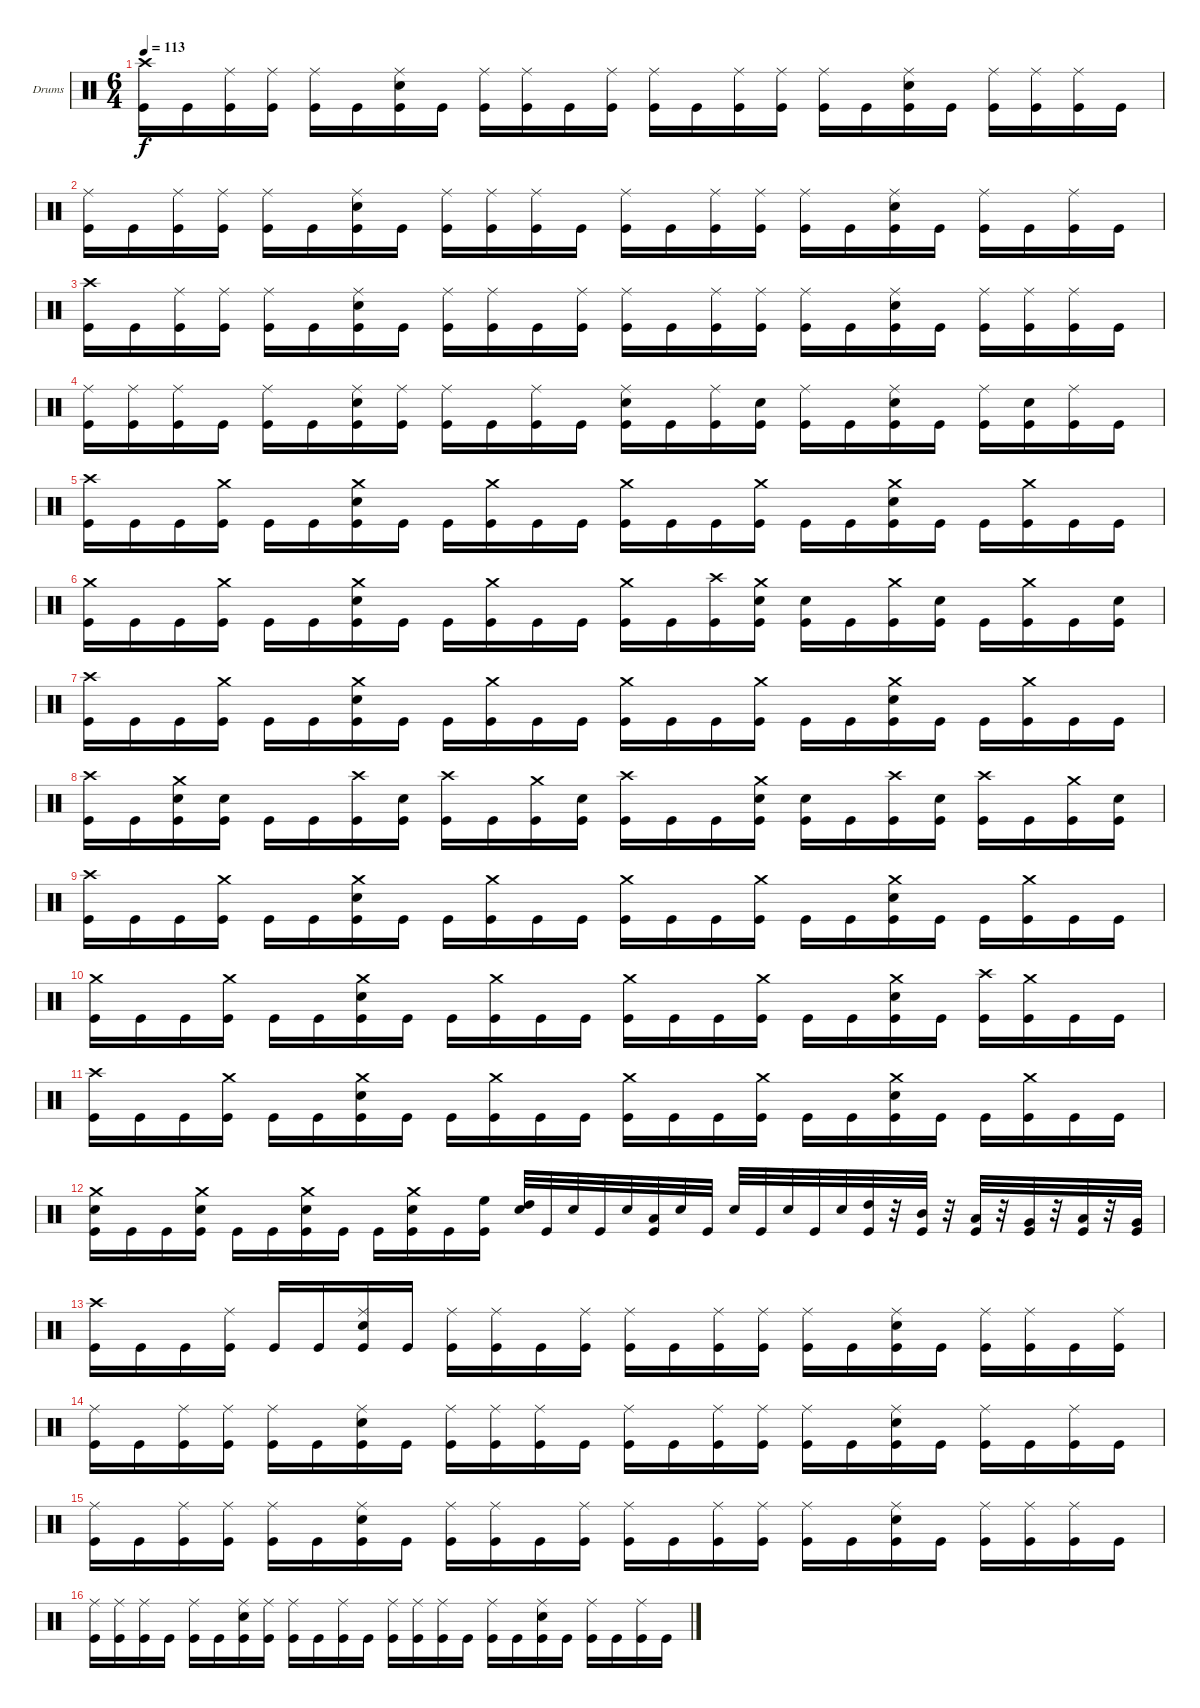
\bracketExtendMode groupsimilarinstruments
\firstSystemTrackNameOrientation horizontal
\otherSystemsTrackNameOrientation horizontal
\track ("Drumkit" "Drums") {instrument percussion}
\staff {score}
\articulation defaults
\ts (6 4)
\tempo 113
\clef neutral
\ks c
("Crash high (hit)" "Kick (hit)").16{dy f} "Kick (hit)".16 ("Ride (middle)" "Kick (hit)").16 ("Ride (middle)" "Kick (hit)").16 ("Ride (middle)" "Kick (hit)").16 "Kick (hit)".16 ("Ride (middle)" "Snare (hit) 2" "Kick (hit)").16 "Kick (hit)".16 ("Ride (middle)" "Kick (hit)").16 ("Ride (middle)" "Kick (hit)").16 "Kick (hit)".16 ("Ride (middle)" "Kick (hit)").16 ("Ride (middle)" "Kick (hit)").16 "Kick (hit)".16 ("Ride (middle)" "Kick (hit)").16 ("Ride (middle)" "Kick (hit)").16 ("Ride (middle)" "Kick (hit)").16 "Kick (hit)".16 ("Ride (middle)" "Snare (hit) 2" "Kick (hit)").16 "Kick (hit)".16 ("Ride (middle)" "Kick (hit)").16 ("Ride (middle)" "Kick (hit)").16 ("Ride (middle)" "Kick (hit)").16 "Kick (hit)".16 |
("Ride (middle)" "Kick (hit)").16 "Kick (hit)".16 ("Ride (middle)" "Kick (hit)").16 ("Ride (middle)" "Kick (hit)").16 ("Ride (middle)" "Kick (hit)").16 "Kick (hit)".16 ("Ride (middle)" "Snare (hit) 2" "Kick (hit)").16 "Kick (hit)".16 ("Ride (middle)" "Kick (hit)").16 ("Ride (middle)" "Kick (hit)").16 ("Ride (middle)" "Kick (hit)").16 "Kick (hit)".16 ("Ride (middle)" "Kick (hit)").16 "Kick (hit)".16 ("Ride (middle)" "Kick (hit)").16 ("Ride (middle)" "Kick (hit)").16 ("Ride (middle)" "Kick (hit)").16 "Kick (hit)".16 ("Ride (middle)" "Snare (hit) 2" "Kick (hit)").16 "Kick (hit)".16 ("Ride (middle)" "Kick (hit)").16 "Kick (hit)".16 ("Ride (middle)" "Kick (hit)").16 "Kick (hit)".16 |
("Crash high (hit)" "Kick (hit)").16 "Kick (hit)".16 ("Ride (middle)" "Kick (hit)").16 ("Ride (middle)" "Kick (hit)").16 ("Ride (middle)" "Kick (hit)").16 "Kick (hit)".16 ("Ride (middle)" "Snare (hit) 2" "Kick (hit)").16 "Kick (hit)".16 ("Ride (middle)" "Kick (hit)").16 ("Ride (middle)" "Kick (hit)").16 "Kick (hit)".16 ("Ride (middle)" "Kick (hit)").16 ("Ride (middle)" "Kick (hit)").16 "Kick (hit)".16 ("Ride (middle)" "Kick (hit)").16 ("Ride (middle)" "Kick (hit)").16 ("Ride (middle)" "Kick (hit)").16 "Kick (hit)".16 ("Ride (middle)" "Snare (hit) 2" "Kick (hit)").16 "Kick (hit)".16 ("Ride (middle)" "Kick (hit)").16 ("Ride (middle)" "Kick (hit)").16 ("Ride (middle)" "Kick (hit)").16 "Kick (hit)".16 |
("Ride (middle)" "Kick (hit)").16 ("Ride (middle)" "Kick (hit)").16 ("Ride (middle)" "Kick (hit)").16 "Kick (hit)".16 ("Ride (middle)" "Kick (hit)").16 "Kick (hit)".16 ("Ride (middle)" "Snare (hit) 2" "Kick (hit)").16 ("Ride (middle)" "Kick (hit)").16 ("Ride (middle)" "Kick (hit)").16 "Kick (hit)".16 ("Ride (middle)" "Kick (hit)").16 "Kick (hit)".16 ("Ride (middle)" "Snare (hit) 2" "Kick (hit)").16 "Kick (hit)".16 ("Ride (middle)" "Kick (hit)").16 ("Snare (hit) 2" "Kick (hit)").16 ("Ride (middle)" "Kick (hit)").16 "Kick (hit)".16 ("Ride (middle)" "Snare (hit) 2" "Kick (hit)").16 "Kick (hit)".16 ("Ride (middle)" "Kick (hit)").16 ("Snare (hit) 2" "Kick (hit)").16 ("Ride (middle)" "Kick (hit)").16 "Kick (hit)".16 |
("Crash high (hit)" "Kick (hit)").16 "Kick (hit)".16 "Kick (hit)".16 ("Crash medium (hit)" "Kick (hit)").16 "Kick (hit)".16 "Kick (hit)".16 ("Crash medium (hit)" "Snare (hit) 2" "Kick (hit)").16 "Kick (hit)".16 "Kick (hit)".16 ("Crash medium (hit)" "Kick (hit)").16 "Kick (hit)".16 "Kick (hit)".16 ("Crash medium (hit)" "Kick (hit)").16 "Kick (hit)".16 "Kick (hit)".16 ("Crash medium (hit)" "Kick (hit)").16 "Kick (hit)".16 "Kick (hit)".16 ("Crash medium (hit)" "Snare (hit) 2" "Kick (hit)").16 "Kick (hit)".16 "Kick (hit)".16 ("Crash medium (hit)" "Kick (hit)").16 "Kick (hit)".16 "Kick (hit)".16 |
("Crash medium (hit)" "Kick (hit)").16 "Kick (hit)".16 "Kick (hit)".16 ("Crash medium (hit)" "Kick (hit)").16 "Kick (hit)".16 "Kick (hit)".16 ("Crash medium (hit)" "Snare (hit) 2" "Kick (hit)").16 "Kick (hit)".16 "Kick (hit)".16 ("Crash medium (hit)" "Kick (hit)").16 "Kick (hit)".16 "Kick (hit)".16 ("Crash medium (hit)" "Kick (hit)").16 "Kick (hit)".16 ("Crash high (hit)" "Kick (hit)").16 ("Crash medium (hit)" "Snare (hit) 2" "Kick (hit)").16 ("Snare (hit) 2" "Kick (hit)").16 "Kick (hit)".16 ("Crash medium (hit)" "Kick (hit)").16 ("Snare (hit) 2" "Kick (hit)").16 "Kick (hit)".16 ("Crash medium (hit)" "Kick (hit)").16 "Kick (hit)".16 ("Snare (hit) 2" "Kick (hit)").16 |
("Crash high (hit)" "Kick (hit)").16 "Kick (hit)".16 "Kick (hit)".16 ("Crash medium (hit)" "Kick (hit)").16 "Kick (hit)".16 "Kick (hit)".16 ("Crash medium (hit)" "Snare (hit) 2" "Kick (hit)").16 "Kick (hit)".16 "Kick (hit)".16 ("Crash medium (hit)" "Kick (hit)").16 "Kick (hit)".16 "Kick (hit)".16 ("Crash medium (hit)" "Kick (hit)").16 "Kick (hit)".16 "Kick (hit)".16 ("Crash medium (hit)" "Kick (hit)").16 "Kick (hit)".16 "Kick (hit)".16 ("Crash medium (hit)" "Snare (hit) 2" "Kick (hit)").16 "Kick (hit)".16 "Kick (hit)".16 ("Crash medium (hit)" "Kick (hit)").16 "Kick (hit)".16 "Kick (hit)".16 |
("Crash high (hit)" "Kick (hit)").16 "Kick (hit)".16 ("Crash medium (hit)" "Snare (hit) 2" "Kick (hit)").16 ("Snare (hit) 2" "Kick (hit)").16 "Kick (hit)".16 "Kick (hit)".16 ("Crash high (hit)" "Kick (hit)").16 ("Snare (hit) 2" "Kick (hit)").16 ("Crash high (hit)" "Kick (hit)").16 "Kick (hit)".16 ("Crash medium (hit)" "Kick (hit)").16 ("Snare (hit) 2" "Kick (hit)").16 ("Crash high (hit)" "Kick (hit)").16 "Kick (hit)".16 "Kick (hit)".16 ("Crash medium (hit)" "Snare (hit) 2" "Kick (hit)").16 ("Snare (hit) 2" "Kick (hit)").16 "Kick (hit)".16 ("Crash high (hit)" "Kick (hit)").16 ("Snare (hit) 2" "Kick (hit)").16 ("Crash high (hit)" "Kick (hit)").16 "Kick (hit)".16 ("Crash medium (hit)" "Kick (hit)").16 ("Snare (hit) 2" "Kick (hit)").16 |
("Crash high (hit)" "Kick (hit)").16 "Kick (hit)".16 "Kick (hit)".16 ("Crash medium (hit)" "Kick (hit)").16 "Kick (hit)".16 "Kick (hit)".16 ("Crash medium (hit)" "Snare (hit) 2" "Kick (hit)").16 "Kick (hit)".16 "Kick (hit)".16 ("Crash medium (hit)" "Kick (hit)").16 "Kick (hit)".16 "Kick (hit)".16 ("Crash medium (hit)" "Kick (hit)").16 "Kick (hit)".16 "Kick (hit)".16 ("Crash medium (hit)" "Kick (hit)").16 "Kick (hit)".16 "Kick (hit)".16 ("Crash medium (hit)" "Snare (hit) 2" "Kick (hit)").16 "Kick (hit)".16 "Kick (hit)".16 ("Crash medium (hit)" "Kick (hit)").16 "Kick (hit)".16 "Kick (hit)".16 |
("Crash medium (hit)" "Kick (hit)").16 "Kick (hit)".16 "Kick (hit)".16 ("Crash medium (hit)" "Kick (hit)").16 "Kick (hit)".16 "Kick (hit)".16 ("Crash medium (hit)" "Snare (hit) 2" "Kick (hit)").16 "Kick (hit)".16 "Kick (hit)".16 ("Crash medium (hit)" "Kick (hit)").16 "Kick (hit)".16 "Kick (hit)".16 ("Crash medium (hit)" "Kick (hit)").16 "Kick (hit)".16 "Kick (hit)".16 ("Crash medium (hit)" "Kick (hit)").16 "Kick (hit)".16 "Kick (hit)".16 ("Crash medium (hit)" "Snare (hit) 2" "Kick (hit)").16 "Kick (hit)".16 ("Crash high (hit)" "Kick (hit)").16 ("Crash medium (hit)" "Kick (hit)").16 "Kick (hit)".16 "Kick (hit)".16 |
("Crash high (hit)" "Kick (hit)").16 "Kick (hit)".16 "Kick (hit)".16 ("Crash medium (hit)" "Kick (hit)").16 "Kick (hit)".16 "Kick (hit)".16 ("Crash medium (hit)" "Snare (hit) 2" "Kick (hit)").16 "Kick (hit)".16 "Kick (hit)".16 ("Crash medium (hit)" "Kick (hit)").16 "Kick (hit)".16 "Kick (hit)".16 ("Crash medium (hit)" "Kick (hit)").16 "Kick (hit)".16 "Kick (hit)".16 ("Crash medium (hit)" "Kick (hit)").16 "Kick (hit)".16 "Kick (hit)".16 ("Crash medium (hit)" "Snare (hit) 2" "Kick (hit)").16 "Kick (hit)".16 "Kick (hit)".16 ("Crash medium (hit)" "Kick (hit)").16 "Kick (hit)".16 "Kick (hit)".16 |
("Crash medium (hit)" "Snare (hit) 2" "Kick (hit)").16 "Kick (hit)".16 "Kick (hit)".16 ("Crash medium (hit)" "Snare (hit) 2" "Kick (hit)").16 "Kick (hit)".16 "Kick (hit)".16 ("Crash medium (hit)" "Snare (hit) 2" "Kick (hit)").16 "Kick (hit)".16 "Kick (hit)".16 ("Crash medium (hit)" "Snare (hit) 2" "Kick (hit)").16 "Kick (hit)".16 ("High Floor Tom (hit)" "Kick (hit)").16 ("Snare (hit) 2" "High Tom (hit)").32 "Kick (hit)".32 "Snare (hit) 2".32 "Kick (hit)".32 "Snare (hit) 2".32 ("Low Tom (hit)" "Kick (hit)").32 "Snare (hit) 2".32 "Kick (hit)".32 "Snare (hit) 2".32 "Kick (hit)".32 "Snare (hit) 2".32 "Kick (hit)".32 "Snare (hit) 2".32 ("High Tom (hit)" "Kick (hit)").32 r.32 ("Mid Tom (hit)" "Kick (hit)").32 r.32 ("Low Tom (hit)" "Kick (hit)").32 r.32 ("Very Low Tom (hit)" "Kick (hit)").32 r.32 ("Low Tom (hit)" "Kick (hit)").32 r.32 ("Very Low Tom (hit)" "Kick (hit)").32 |
("Crash high (hit)" "Kick (hit)").16 "Kick (hit)".16 "Kick (hit)".16 ("Ride (middle)" "Kick (hit)").16 "Kick (hit)".16 "Kick (hit)".16 ("Ride (middle)" "Snare (hit) 2" "Kick (hit)").16 "Kick (hit)".16 ("Ride (middle)" "Kick (hit)").16 ("Ride (middle)" "Kick (hit)").16 "Kick (hit)".16 ("Ride (middle)" "Kick (hit)").16 ("Ride (middle)" "Kick (hit)").16 "Kick (hit)".16 ("Ride (middle)" "Kick (hit)").16 ("Ride (middle)" "Kick (hit)").16 ("Ride (middle)" "Kick (hit)").16 "Kick (hit)".16 ("Ride (middle)" "Snare (hit) 2" "Kick (hit)").16 "Kick (hit)".16 ("Ride (middle)" "Kick (hit)").16 ("Ride (middle)" "Kick (hit)").16 "Kick (hit)".16 ("Ride (middle)" "Kick (hit)").16 |
("Ride (middle)" "Kick (hit)").16 "Kick (hit)".16 ("Ride (middle)" "Kick (hit)").16 ("Ride (middle)" "Kick (hit)").16 ("Ride (middle)" "Kick (hit)").16 "Kick (hit)".16 ("Ride (middle)" "Snare (hit) 2" "Kick (hit)").16 "Kick (hit)".16 ("Ride (middle)" "Kick (hit)").16 ("Ride (middle)" "Kick (hit)").16 ("Ride (middle)" "Kick (hit)").16 "Kick (hit)".16 ("Ride (middle)" "Kick (hit)").16 "Kick (hit)".16 ("Ride (middle)" "Kick (hit)").16 ("Ride (middle)" "Kick (hit)").16 ("Ride (middle)" "Kick (hit)").16 "Kick (hit)".16 ("Ride (middle)" "Snare (hit) 2" "Kick (hit)").16 "Kick (hit)".16 ("Ride (middle)" "Kick (hit)").16 "Kick (hit)".16 ("Ride (middle)" "Kick (hit)").16 "Kick (hit)".16 |
("Ride (middle)" "Kick (hit)").16 "Kick (hit)".16 ("Ride (middle)" "Kick (hit)").16 ("Ride (middle)" "Kick (hit)").16 ("Ride (middle)" "Kick (hit)").16 "Kick (hit)".16 ("Ride (middle)" "Snare (hit) 2" "Kick (hit)").16 "Kick (hit)".16 ("Ride (middle)" "Kick (hit)").16 ("Ride (middle)" "Kick (hit)").16 "Kick (hit)".16 ("Ride (middle)" "Kick (hit)").16 ("Ride (middle)" "Kick (hit)").16 "Kick (hit)".16 ("Ride (middle)" "Kick (hit)").16 ("Ride (middle)" "Kick (hit)").16 ("Ride (middle)" "Kick (hit)").16 "Kick (hit)".16 ("Ride (middle)" "Snare (hit) 2" "Kick (hit)").16 "Kick (hit)".16 ("Ride (middle)" "Kick (hit)").16 ("Ride (middle)" "Kick (hit)").16 ("Ride (middle)" "Kick (hit)").16 "Kick (hit)".16 |
("Ride (middle)" "Kick (hit)").16 ("Ride (middle)" "Kick (hit)").16 ("Ride (middle)" "Kick (hit)").16 "Kick (hit)".16 ("Ride (middle)" "Kick (hit)").16 "Kick (hit)".16 ("Ride (middle)" "Snare (hit) 2" "Kick (hit)").16 ("Ride (middle)" "Kick (hit)").16 ("Ride (middle)" "Kick (hit)").16 "Kick (hit)".16 ("Ride (middle)" "Kick (hit)").16 "Kick (hit)".16 ("Ride (middle)" "Kick (hit)").16 ("Ride (middle)" "Kick (hit)").16 ("Ride (middle)" "Kick (hit)").16 "Kick (hit)".16 ("Ride (middle)" "Kick (hit)").16 "Kick (hit)".16 ("Ride (middle)" "Snare (hit) 2" "Kick (hit)").16 "Kick (hit)".16 ("Ride (middle)" "Kick (hit)").16 "Kick (hit)".16 ("Ride (middle)" "Kick (hit)").16 "Kick (hit)".16
